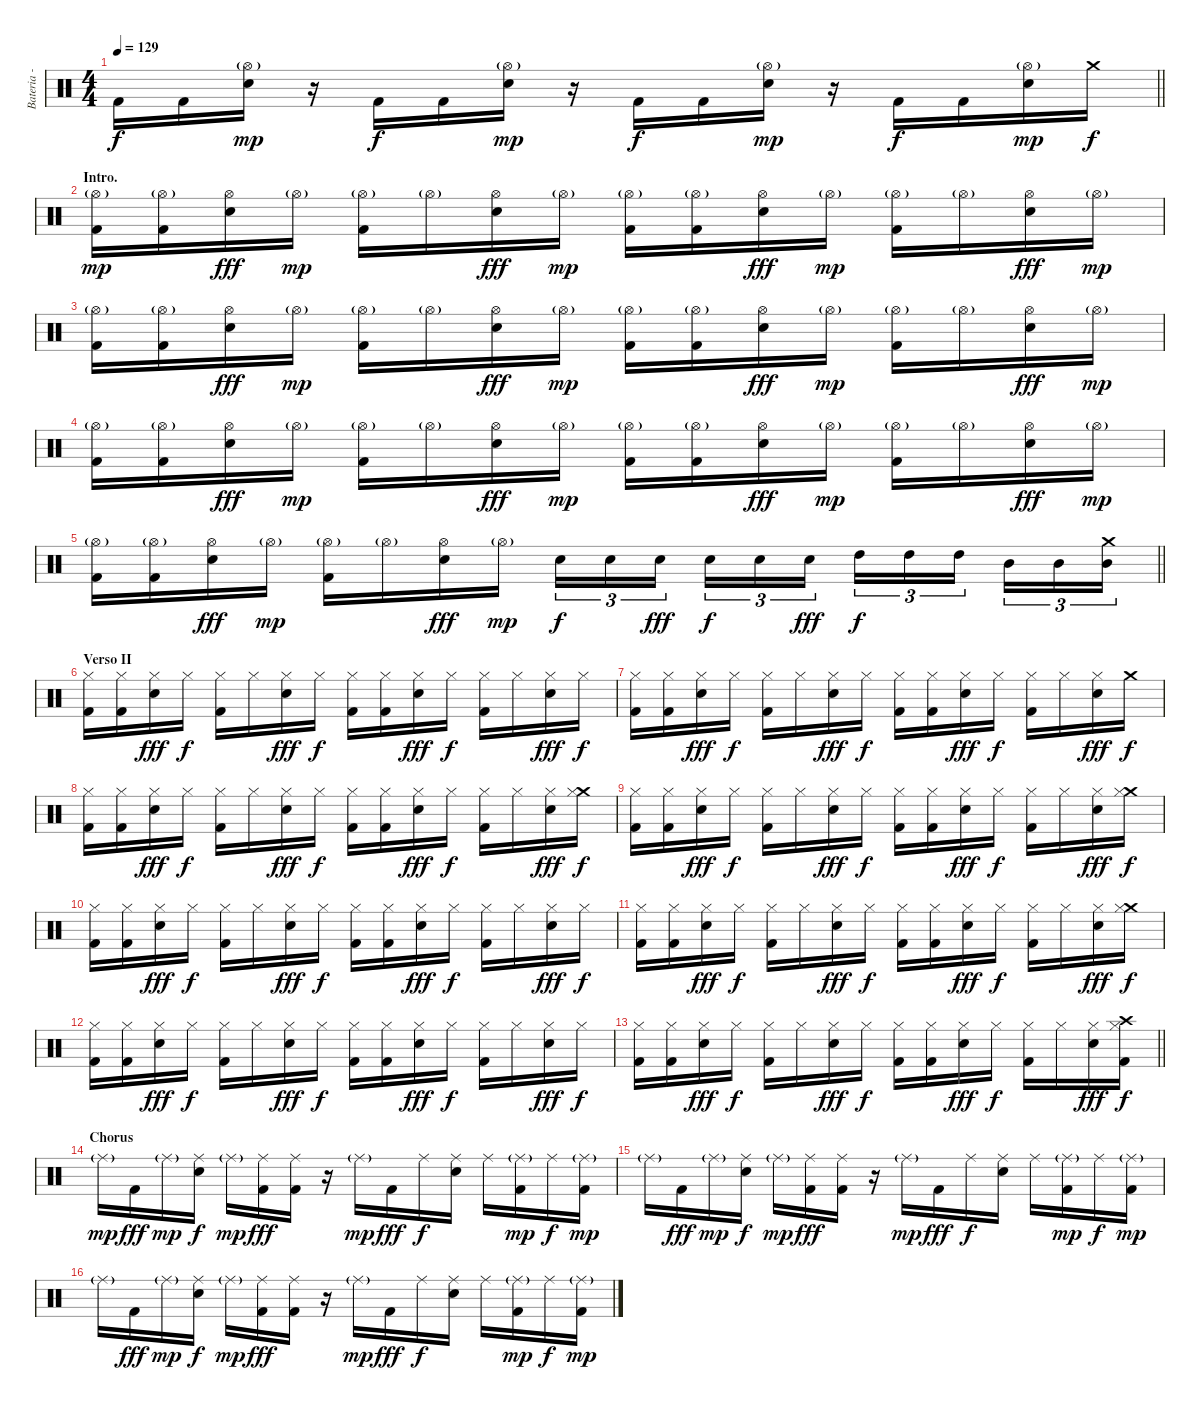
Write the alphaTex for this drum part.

\track ("Bateria - Larzon" "Bateria - ") {instrument percussion}
\staff {score}
\articulation defaults
\ts (4 4)
\tempo 129
\clef neutral
\barLineRight lightlight
\ks c "Kick (hit) 2".16{dy f} "Kick (hit) 2".16
("Electric Snare (hit)" "Hi-Hat (open)"{g}).16{dy mp} r.16 "Kick (hit) 2".16{dy f} "Kick (hit) 2".16 ("Electric Snare (hit)" "Hi-Hat (open)"{g}).16{dy mp} r.16 "Kick (hit) 2".16{dy f} "Kick (hit) 2".16 ("Electric Snare (hit)" "Hi-Hat (open)"{g}).16{dy mp} r.16 "Kick (hit) 2".16{dy f} "Kick (hit) 2".16 ("Electric Snare (hit)" "Hi-Hat (open)"{g}).16{dy mp} "Crash medium (hit)".16{dy f} |
\section ("" "Intro.")
("Kick (hit) 2" "Hi-Hat (open)"{g}).16{dy mp} ("Kick (hit) 2" "Hi-Hat (open)"{g}).16 ("Electric Snare (hit)" "Hi-Hat (open)").16{dy fff} "Hi-Hat (open)"{g}.16{dy mp} ("Kick (hit) 2" "Hi-Hat (open)"{g}).16 "Hi-Hat (open)"{g}.16 ("Electric Snare (hit)" "Hi-Hat (open)").16{dy fff} "Hi-Hat (open)"{g}.16{dy mp} ("Kick (hit) 2" "Hi-Hat (open)"{g}).16 ("Kick (hit) 2" "Hi-Hat (open)"{g}).16 ("Electric Snare (hit)" "Hi-Hat (open)").16{dy fff} "Hi-Hat (open)"{g}.16{dy mp} ("Kick (hit) 2" "Hi-Hat (open)"{g}).16 "Hi-Hat (open)"{g}.16 ("Electric Snare (hit)" "Hi-Hat (open)").16{dy fff} "Hi-Hat (open)"{g}.16{dy mp} |
("Kick (hit) 2" "Hi-Hat (open)"{g}).16 ("Kick (hit) 2" "Hi-Hat (open)"{g}).16 ("Electric Snare (hit)" "Hi-Hat (open)").16{dy fff} "Hi-Hat (open)"{g}.16{dy mp} ("Kick (hit) 2" "Hi-Hat (open)"{g}).16 "Hi-Hat (open)"{g}.16 ("Electric Snare (hit)" "Hi-Hat (open)").16{dy fff} "Hi-Hat (open)"{g}.16{dy mp} ("Kick (hit) 2" "Hi-Hat (open)"{g}).16 ("Kick (hit) 2" "Hi-Hat (open)"{g}).16 ("Electric Snare (hit)" "Hi-Hat (open)").16{dy fff} "Hi-Hat (open)"{g}.16{dy mp} ("Kick (hit) 2" "Hi-Hat (open)"{g}).16 "Hi-Hat (open)"{g}.16 ("Electric Snare (hit)" "Hi-Hat (open)").16{dy fff} "Hi-Hat (open)"{g}.16{dy mp} |
("Kick (hit) 2" "Hi-Hat (open)"{g}).16 ("Kick (hit) 2" "Hi-Hat (open)"{g}).16 ("Electric Snare (hit)" "Hi-Hat (open)").16{dy fff} "Hi-Hat (open)"{g}.16{dy mp} ("Kick (hit) 2" "Hi-Hat (open)"{g}).16 "Hi-Hat (open)"{g}.16 ("Electric Snare (hit)" "Hi-Hat (open)").16{dy fff} "Hi-Hat (open)"{g}.16{dy mp} ("Kick (hit) 2" "Hi-Hat (open)"{g}).16 ("Kick (hit) 2" "Hi-Hat (open)"{g}).16 ("Electric Snare (hit)" "Hi-Hat (open)").16{dy fff} "Hi-Hat (open)"{g}.16{dy mp} ("Kick (hit) 2" "Hi-Hat (open)"{g}).16 "Hi-Hat (open)"{g}.16 ("Electric Snare (hit)" "Hi-Hat (open)").16{dy fff} "Hi-Hat (open)"{g}.16{dy mp} |
\barLineRight lightlight
("Kick (hit) 2" "Hi-Hat (open)"{g}).16 ("Kick (hit) 2" "Hi-Hat (open)"{g}).16 ("Electric Snare (hit)" "Hi-Hat (open)").16{dy fff} "Hi-Hat (open)"{g}.16{dy mp} ("Kick (hit) 2" "Hi-Hat (open)"{g}).16 "Hi-Hat (open)"{g}.16 ("Electric Snare (hit)" "Hi-Hat (open)").16{dy fff} "Hi-Hat (open)"{g}.16{dy mp} "Electric Snare (hit)".16{tu (3 2) dy f} "Electric Snare (hit)".16{tu (3 2)} "Electric Snare (hit)".16{tu (3 2) dy fff} "Electric Snare (hit)".16{tu (3 2) dy f} "Electric Snare (hit)".16{tu (3 2)} "Electric Snare (hit)".16{tu (3 2) dy fff} "High Tom (hit)".16{tu (3 2) dy f} "High Tom (hit)".16{tu (3 2)} "High Tom (hit)".16{tu (3 2)} "Mid Tom (hit)".16{tu (3 2)} "Mid Tom (hit)".16{tu (3 2)} ("Crash medium (hit)" "Mid Tom (hit)").16{tu (3 2)} |
\section ("" "Verso II")
("Kick (hit) 2" "Hi-Hat (closed)").16 ("Kick (hit) 2" "Hi-Hat (closed)").16 ("Electric Snare (hit)" "Hi-Hat (closed)").16{dy fff} "Hi-Hat (closed)".16{dy f} ("Kick (hit) 2" "Hi-Hat (closed)").16 "Hi-Hat (closed)".16 ("Electric Snare (hit)" "Hi-Hat (closed)").16{dy fff} "Hi-Hat (closed)".16{dy f} ("Kick (hit) 2" "Hi-Hat (closed)").16 ("Kick (hit) 2" "Hi-Hat (closed)").16 ("Electric Snare (hit)" "Hi-Hat (closed)").16{dy fff} "Hi-Hat (closed)".16{dy f} ("Kick (hit) 2" "Hi-Hat (closed)").16 "Hi-Hat (closed)".16 ("Electric Snare (hit)" "Hi-Hat (closed)").16{dy fff} "Hi-Hat (closed)".16{dy f} |
("Kick (hit) 2" "Hi-Hat (closed)").16 ("Kick (hit) 2" "Hi-Hat (closed)").16 ("Electric Snare (hit)" "Hi-Hat (closed)").16{dy fff} "Hi-Hat (closed)".16{dy f} ("Kick (hit) 2" "Hi-Hat (closed)").16 "Hi-Hat (closed)".16 ("Electric Snare (hit)" "Hi-Hat (closed)").16{dy fff} "Hi-Hat (closed)".16{dy f} ("Kick (hit) 2" "Hi-Hat (closed)").16 ("Kick (hit) 2" "Hi-Hat (closed)").16 ("Electric Snare (hit)" "Hi-Hat (closed)").16{dy fff} "Hi-Hat (closed)".16{dy f} ("Kick (hit) 2" "Hi-Hat (closed)").16 "Hi-Hat (closed)".16 ("Electric Snare (hit)" "Hi-Hat (closed)").16{dy fff} "Crash medium (hit)".16{dy f} |
("Kick (hit) 2" "Hi-Hat (closed)").16 ("Kick (hit) 2" "Hi-Hat (closed)").16 ("Electric Snare (hit)" "Hi-Hat (closed)").16{dy fff} "Hi-Hat (closed)".16{dy f} ("Kick (hit) 2" "Hi-Hat (closed)").16 "Hi-Hat (closed)".16 ("Electric Snare (hit)" "Hi-Hat (closed)").16{dy fff} "Hi-Hat (closed)".16{dy f} ("Kick (hit) 2" "Hi-Hat (closed)").16 ("Kick (hit) 2" "Hi-Hat (closed)").16 ("Electric Snare (hit)" "Hi-Hat (closed)").16{dy fff} "Hi-Hat (closed)".16{dy f} ("Kick (hit) 2" "Hi-Hat (closed)").16 "Hi-Hat (closed)".16 ("Electric Snare (hit)" "Hi-Hat (closed)").16{dy fff} ("Crash medium (hit)" "Hi-Hat (closed)").16{dy f} |
("Kick (hit) 2" "Hi-Hat (closed)").16 ("Kick (hit) 2" "Hi-Hat (closed)").16 ("Electric Snare (hit)" "Hi-Hat (closed)").16{dy fff} "Hi-Hat (closed)".16{dy f} ("Kick (hit) 2" "Hi-Hat (closed)").16 "Hi-Hat (closed)".16 ("Electric Snare (hit)" "Hi-Hat (closed)").16{dy fff} "Hi-Hat (closed)".16{dy f} ("Kick (hit) 2" "Hi-Hat (closed)").16 ("Kick (hit) 2" "Hi-Hat (closed)").16 ("Electric Snare (hit)" "Hi-Hat (closed)").16{dy fff} "Hi-Hat (closed)".16{dy f} ("Kick (hit) 2" "Hi-Hat (closed)").16 "Hi-Hat (closed)".16 ("Electric Snare (hit)" "Hi-Hat (closed)").16{dy fff} ("Crash medium (hit)" "Hi-Hat (closed)").16{dy f} |
("Kick (hit) 2" "Hi-Hat (closed)").16 ("Kick (hit) 2" "Hi-Hat (closed)").16 ("Electric Snare (hit)" "Hi-Hat (closed)").16{dy fff} "Hi-Hat (closed)".16{dy f} ("Kick (hit) 2" "Hi-Hat (closed)").16 "Hi-Hat (closed)".16 ("Electric Snare (hit)" "Hi-Hat (closed)").16{dy fff} "Hi-Hat (closed)".16{dy f} ("Kick (hit) 2" "Hi-Hat (closed)").16 ("Kick (hit) 2" "Hi-Hat (closed)").16 ("Electric Snare (hit)" "Hi-Hat (closed)").16{dy fff} "Hi-Hat (closed)".16{dy f} ("Kick (hit) 2" "Hi-Hat (closed)").16 "Hi-Hat (closed)".16 ("Electric Snare (hit)" "Hi-Hat (closed)").16{dy fff} "Hi-Hat (closed)".16{dy f} |
("Kick (hit) 2" "Hi-Hat (closed)").16 ("Kick (hit) 2" "Hi-Hat (closed)").16 ("Electric Snare (hit)" "Hi-Hat (closed)").16{dy fff} "Hi-Hat (closed)".16{dy f} ("Kick (hit) 2" "Hi-Hat (closed)").16 "Hi-Hat (closed)".16 ("Electric Snare (hit)" "Hi-Hat (closed)").16{dy fff} "Hi-Hat (closed)".16{dy f} ("Kick (hit) 2" "Hi-Hat (closed)").16 ("Kick (hit) 2" "Hi-Hat (closed)").16 ("Electric Snare (hit)" "Hi-Hat (closed)").16{dy fff} "Hi-Hat (closed)".16{dy f} ("Kick (hit) 2" "Hi-Hat (closed)").16 "Hi-Hat (closed)".16 ("Electric Snare (hit)" "Hi-Hat (closed)").16{dy fff} ("Crash medium (hit)" "Hi-Hat (closed)").16{dy f} |
("Kick (hit) 2" "Hi-Hat (closed)").16 ("Kick (hit) 2" "Hi-Hat (closed)").16 ("Electric Snare (hit)" "Hi-Hat (closed)").16{dy fff} "Hi-Hat (closed)".16{dy f} ("Kick (hit) 2" "Hi-Hat (closed)").16 "Hi-Hat (closed)".16 ("Electric Snare (hit)" "Hi-Hat (closed)").16{dy fff} "Hi-Hat (closed)".16{dy f} ("Kick (hit) 2" "Hi-Hat (closed)").16 ("Kick (hit) 2" "Hi-Hat (closed)").16 ("Electric Snare (hit)" "Hi-Hat (closed)").16{dy fff} "Hi-Hat (closed)".16{dy f} ("Kick (hit) 2" "Hi-Hat (closed)").16 "Hi-Hat (closed)".16 ("Electric Snare (hit)" "Hi-Hat (closed)").16{dy fff} "Hi-Hat (closed)".16{dy f} |
\barLineRight lightlight
("Kick (hit) 2" "Hi-Hat (closed)").16 ("Kick (hit) 2" "Hi-Hat (closed)").16 ("Electric Snare (hit)" "Hi-Hat (closed)").16{dy fff} "Hi-Hat (closed)".16{dy f} ("Kick (hit) 2" "Hi-Hat (closed)").16 "Hi-Hat (closed)".16 ("Electric Snare (hit)" "Hi-Hat (closed)").16{dy fff} "Hi-Hat (closed)".16{dy f} ("Kick (hit) 2" "Hi-Hat (closed)").16 ("Kick (hit) 2" "Hi-Hat (closed)").16 ("Electric Snare (hit)" "Hi-Hat (closed)").16{dy fff} "Hi-Hat (closed)".16{dy f} ("Kick (hit) 2" "Hi-Hat (closed)").16 "Hi-Hat (closed)".16 ("Electric Snare (hit)" "Hi-Hat (closed)").16{dy fff} ("Crash high (hit)" "Kick (hit) 2" "Hi-Hat (closed)").16{dy f} |
\section ("" "Chorus")
"Ride (middle)"{g}.16{dy mp} "Kick (hit) 2".16{dy fff} "Ride (middle)"{g}.16{dy mp} ("Electric Snare (hit)" "Ride (middle)").16{dy f} "Ride (middle)"{g}.16{dy mp} ("Kick (hit) 2" "Ride (middle)").16{dy fff} ("Kick (hit) 2" "Ride (middle)").16 r.16 "Ride (middle)"{g}.16{dy mp} "Kick (hit) 2".16{dy fff} "Ride (middle)".16{dy f} ("Electric Snare (hit)" "Ride (middle)").16 "Ride (middle)".16 ("Kick (hit) 2" "Ride (middle)"{g}).16{dy mp} "Ride (middle)".16{dy f} ("Kick (hit) 2" "Ride (middle)"{g}).16{dy mp} |
"Ride (middle)"{g}.16 "Kick (hit) 2".16{dy fff} "Ride (middle)"{g}.16{dy mp} ("Electric Snare (hit)" "Ride (middle)").16{dy f} "Ride (middle)"{g}.16{dy mp} ("Kick (hit) 2" "Ride (middle)").16{dy fff} ("Kick (hit) 2" "Ride (middle)").16 r.16 "Ride (middle)"{g}.16{dy mp} "Kick (hit) 2".16{dy fff} "Ride (middle)".16{dy f} ("Electric Snare (hit)" "Ride (middle)").16 "Ride (middle)".16 ("Kick (hit) 2" "Ride (middle)"{g}).16{dy mp} "Ride (middle)".16{dy f} ("Kick (hit) 2" "Ride (middle)"{g}).16{dy mp} |
"Ride (middle)"{g}.16 "Kick (hit) 2".16{dy fff} "Ride (middle)"{g}.16{dy mp} ("Electric Snare (hit)" "Ride (middle)").16{dy f} "Ride (middle)"{g}.16{dy mp} ("Kick (hit) 2" "Ride (middle)").16{dy fff} ("Kick (hit) 2" "Ride (middle)").16 r.16 "Ride (middle)"{g}.16{dy mp} "Kick (hit) 2".16{dy fff} "Ride (middle)".16{dy f} ("Electric Snare (hit)" "Ride (middle)").16 "Ride (middle)".16 ("Kick (hit) 2" "Ride (middle)"{g}).16{dy mp} "Ride (middle)".16{dy f} ("Kick (hit) 2" "Ride (middle)"{g}).16{dy mp}
